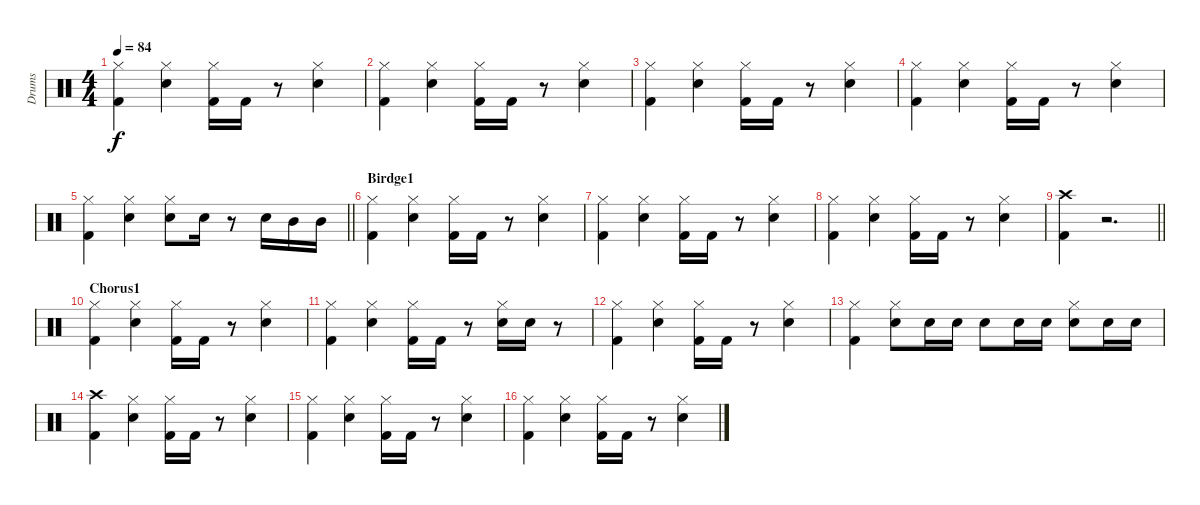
\track ("Drums" "Drums") {instrument percussion}
\staff {score}
\articulation defaults
\ts (4 4)
\tempo 84
\clef neutral
\ks c
("Hi-Hat (closed)" "Kick (hit) 2").4{dy f} ("Hi-Hat (closed)" "Snare (hit) 2").4 ("Hi-Hat (closed)" "Kick (hit) 2").16 "Kick (hit) 2".16 r.8 ("Hi-Hat (closed)" "Snare (hit) 2").4 |
("Hi-Hat (closed)" "Kick (hit) 2").4 ("Hi-Hat (closed)" "Snare (hit) 2").4 ("Hi-Hat (closed)" "Kick (hit) 2").16 "Kick (hit) 2".16 r.8 ("Hi-Hat (closed)" "Snare (hit) 2").4 |
("Hi-Hat (closed)" "Kick (hit) 2").4 ("Hi-Hat (closed)" "Snare (hit) 2").4 ("Hi-Hat (closed)" "Kick (hit) 2").16 "Kick (hit) 2".16 r.8 ("Hi-Hat (closed)" "Snare (hit) 2").4 |
("Hi-Hat (closed)" "Kick (hit) 2").4 ("Hi-Hat (closed)" "Snare (hit) 2").4 ("Hi-Hat (closed)" "Kick (hit) 2").16 "Kick (hit) 2".16 r.8 ("Hi-Hat (closed)" "Snare (hit) 2").4 |
\barLineRight lightlight
("Hi-Hat (closed)" "Kick (hit) 2").4 ("Hi-Hat (closed)" "Snare (hit) 2").4 ("Hi-Hat (closed)" "Snare (hit) 2").8 "Snare (hit) 2".16 r.8 "Snare (hit) 2".16 "Mid Tom (hit)".16 "Mid Tom (hit)".16 |
\section ("" "Birdge1")
("Hi-Hat (closed)" "Kick (hit) 2").4 ("Hi-Hat (closed)" "Snare (hit) 2").4 ("Hi-Hat (closed)" "Kick (hit) 2").16 "Kick (hit) 2".16 r.8 ("Hi-Hat (closed)" "Snare (hit) 2").4 |
("Hi-Hat (closed)" "Kick (hit) 2").4 ("Hi-Hat (closed)" "Snare (hit) 2").4 ("Hi-Hat (closed)" "Kick (hit) 2").16 "Kick (hit) 2".16 r.8 ("Hi-Hat (closed)" "Snare (hit) 2").4 |
("Hi-Hat (closed)" "Kick (hit) 2").4 ("Hi-Hat (closed)" "Snare (hit) 2").4 ("Hi-Hat (closed)" "Kick (hit) 2").16 "Kick (hit) 2".16 r.8 ("Hi-Hat (closed)" "Snare (hit) 2").4 |
\barLineRight lightlight
("Crash high (hit)" "Kick (hit) 2").4 r.2{d} |
\section ("" "Chorus1")
("Hi-Hat (closed)" "Kick (hit) 2").4 ("Hi-Hat (closed)" "Snare (hit) 2").4 ("Hi-Hat (closed)" "Kick (hit) 2").16 "Kick (hit) 2".16 r.8 ("Hi-Hat (closed)" "Snare (hit) 2").4 |
("Hi-Hat (closed)" "Kick (hit) 2").4 ("Hi-Hat (closed)" "Snare (hit) 2").4 ("Hi-Hat (closed)" "Kick (hit) 2").16 "Kick (hit) 2".16 r.8 ("Hi-Hat (closed)" "Snare (hit) 2").16 "Snare (hit) 2".16 r.8 |
("Hi-Hat (closed)" "Kick (hit) 2").4 ("Hi-Hat (closed)" "Snare (hit) 2").4 ("Hi-Hat (closed)" "Kick (hit) 2").16 "Kick (hit) 2".16 r.8 ("Hi-Hat (closed)" "Snare (hit) 2").4 |
("Hi-Hat (closed)" "Kick (hit) 2").4 ("Hi-Hat (closed)" "Snare (hit) 2").8 "Snare (hit) 2".16 "Snare (hit) 2".16 "Snare (hit) 2".8 "Snare (hit) 2".16 "Snare (hit) 2".16 ("Hi-Hat (closed)" "Snare (hit) 2").8 "Snare (hit) 2".16 "Snare (hit) 2".16 |
("Crash high (hit)" "Kick (hit) 2").4 ("Hi-Hat (closed)" "Snare (hit) 2").4 ("Hi-Hat (closed)" "Kick (hit) 2").16 "Kick (hit) 2".16 r.8 ("Hi-Hat (closed)" "Snare (hit) 2").4 |
("Hi-Hat (closed)" "Kick (hit) 2").4 ("Hi-Hat (closed)" "Snare (hit) 2").4 ("Hi-Hat (closed)" "Kick (hit) 2").16 "Kick (hit) 2".16 r.8 ("Hi-Hat (closed)" "Snare (hit) 2").4 |
("Hi-Hat (closed)" "Kick (hit) 2").4 ("Hi-Hat (closed)" "Snare (hit) 2").4 ("Hi-Hat (closed)" "Kick (hit) 2").16 "Kick (hit) 2".16 r.8 ("Hi-Hat (closed)" "Snare (hit) 2").4
